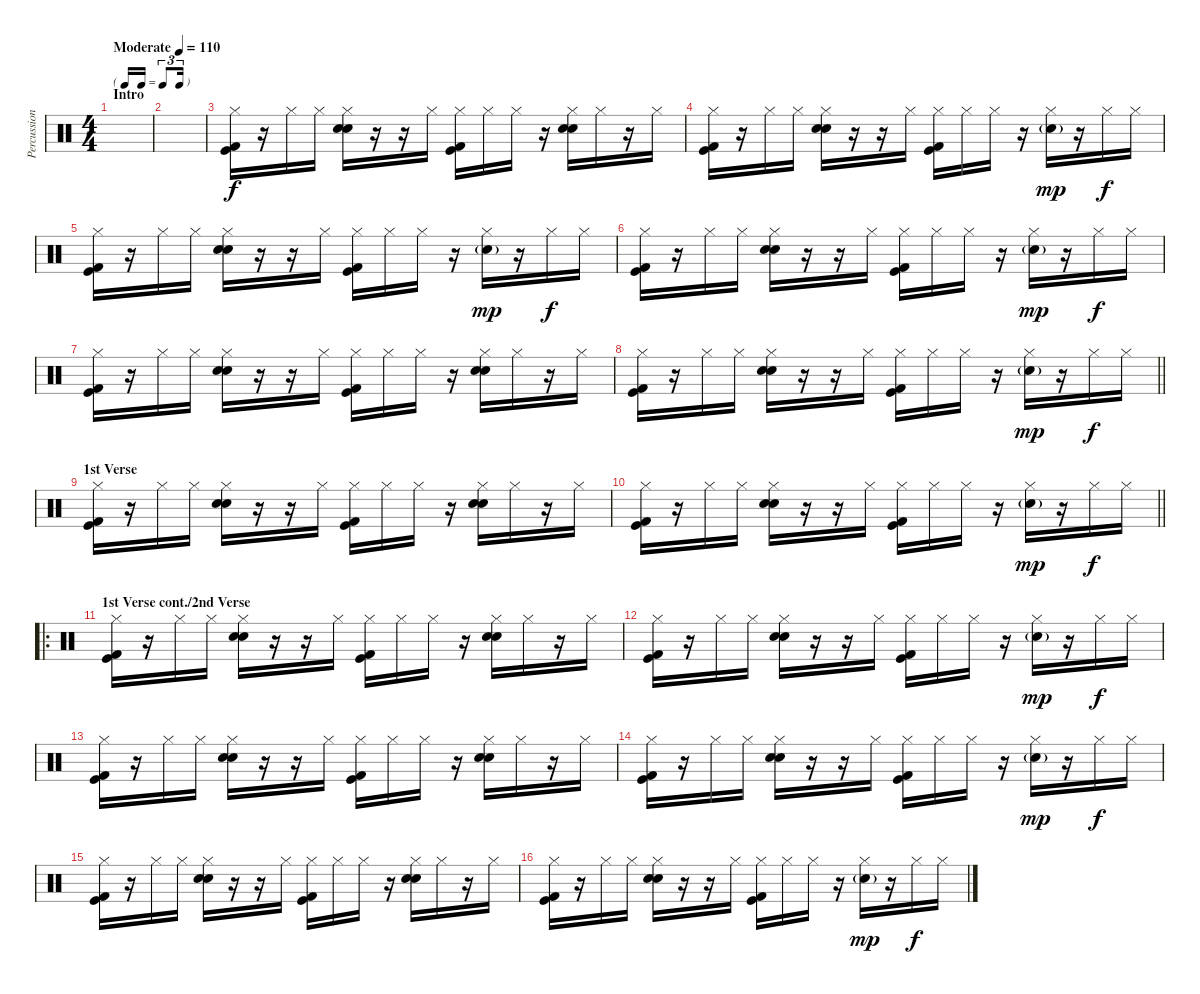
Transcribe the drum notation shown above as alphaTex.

\track ("Percussion" "Percussion") {instrument percussion}
\staff {score}
\articulation defaults
\ts (4 4)
\tf triplet16th
\section ("" "Intro")
\tempo (110 "Moderate")
\clef neutral
\ks c
|
|
("Kick (hit) 2" "Kick (hit)" "Hi-Hat (closed)").16 r.16 "Hi-Hat (closed)".16 "Hi-Hat (closed)".16 ("Electric Snare (hit)" "Snare (hit) 2" "Hi-Hat (closed)").16 r.16 r.16 "Hi-Hat (closed)".16 ("Kick (hit) 2" "Kick (hit)" "Hi-Hat (closed)").16 "Hi-Hat (closed)".16 "Hi-Hat (closed)".16 r.16 ("Electric Snare (hit)" "Snare (hit) 2" "Hi-Hat (closed)").16 "Hi-Hat (closed)".16 r.16 "Hi-Hat (closed)".16 |
("Kick (hit) 2" "Kick (hit)" "Hi-Hat (closed)").16 r.16 "Hi-Hat (closed)".16 "Hi-Hat (closed)".16 ("Electric Snare (hit)" "Snare (hit) 2" "Hi-Hat (closed)").16 r.16 r.16 "Hi-Hat (closed)".16 ("Kick (hit) 2" "Kick (hit)" "Hi-Hat (closed)").16 "Hi-Hat (closed)".16 "Hi-Hat (closed)".16 r.16 ("Hi-Hat (closed)" "Snare (hit) 2"{g}).16{dy mp} r.16 "Hi-Hat (closed)".16{dy f} "Hi-Hat (closed)".16 |
("Kick (hit) 2" "Kick (hit)" "Hi-Hat (closed)").16 r.16 "Hi-Hat (closed)".16 "Hi-Hat (closed)".16 ("Electric Snare (hit)" "Snare (hit) 2" "Hi-Hat (closed)").16 r.16 r.16 "Hi-Hat (closed)".16 ("Kick (hit) 2" "Kick (hit)" "Hi-Hat (closed)").16 "Hi-Hat (closed)".16 "Hi-Hat (closed)".16 r.16 ("Hi-Hat (closed)" "Snare (hit) 2"{g}).16{dy mp} r.16 "Hi-Hat (closed)".16{dy f} "Hi-Hat (closed)".16 |
("Kick (hit) 2" "Kick (hit)" "Hi-Hat (closed)").16 r.16 "Hi-Hat (closed)".16 "Hi-Hat (closed)".16 ("Electric Snare (hit)" "Snare (hit) 2" "Hi-Hat (closed)").16 r.16 r.16 "Hi-Hat (closed)".16 ("Kick (hit) 2" "Kick (hit)" "Hi-Hat (closed)").16 "Hi-Hat (closed)".16 "Hi-Hat (closed)".16 r.16 ("Hi-Hat (closed)" "Snare (hit) 2"{g}).16{dy mp} r.16 "Hi-Hat (closed)".16{dy f} "Hi-Hat (closed)".16 |
("Kick (hit) 2" "Kick (hit)" "Hi-Hat (closed)").16 r.16 "Hi-Hat (closed)".16 "Hi-Hat (closed)".16 ("Electric Snare (hit)" "Snare (hit) 2" "Hi-Hat (closed)").16 r.16 r.16 "Hi-Hat (closed)".16 ("Kick (hit) 2" "Kick (hit)" "Hi-Hat (closed)").16 "Hi-Hat (closed)".16 "Hi-Hat (closed)".16 r.16 ("Electric Snare (hit)" "Snare (hit) 2" "Hi-Hat (closed)").16 "Hi-Hat (closed)".16 r.16 "Hi-Hat (closed)".16 |
\barLineRight lightlight
("Kick (hit) 2" "Kick (hit)" "Hi-Hat (closed)").16 r.16 "Hi-Hat (closed)".16 "Hi-Hat (closed)".16 ("Electric Snare (hit)" "Snare (hit) 2" "Hi-Hat (closed)").16 r.16 r.16 "Hi-Hat (closed)".16 ("Kick (hit) 2" "Kick (hit)" "Hi-Hat (closed)").16 "Hi-Hat (closed)".16 "Hi-Hat (closed)".16 r.16 ("Hi-Hat (closed)" "Snare (hit) 2"{g}).16{dy mp} r.16 "Hi-Hat (closed)".16{dy f} "Hi-Hat (closed)".16 |
\section ("" "1st Verse")
("Kick (hit) 2" "Kick (hit)" "Hi-Hat (closed)").16 r.16 "Hi-Hat (closed)".16 "Hi-Hat (closed)".16 ("Electric Snare (hit)" "Snare (hit) 2" "Hi-Hat (closed)").16 r.16 r.16 "Hi-Hat (closed)".16 ("Kick (hit) 2" "Kick (hit)" "Hi-Hat (closed)").16 "Hi-Hat (closed)".16 "Hi-Hat (closed)".16 r.16 ("Electric Snare (hit)" "Snare (hit) 2" "Hi-Hat (closed)").16 "Hi-Hat (closed)".16 r.16 "Hi-Hat (closed)".16 |
\barLineRight lightlight
("Kick (hit) 2" "Kick (hit)" "Hi-Hat (closed)").16 r.16 "Hi-Hat (closed)".16 "Hi-Hat (closed)".16 ("Electric Snare (hit)" "Snare (hit) 2" "Hi-Hat (closed)").16 r.16 r.16 "Hi-Hat (closed)".16 ("Kick (hit) 2" "Kick (hit)" "Hi-Hat (closed)").16 "Hi-Hat (closed)".16 "Hi-Hat (closed)".16 r.16 ("Hi-Hat (closed)" "Snare (hit) 2"{g}).16{dy mp} r.16 "Hi-Hat (closed)".16{dy f} "Hi-Hat (closed)".16 |
\ro
\section ("" "1st Verse cont./2nd Verse")
("Kick (hit) 2" "Kick (hit)" "Hi-Hat (closed)").16 r.16 "Hi-Hat (closed)".16 "Hi-Hat (closed)".16 ("Electric Snare (hit)" "Snare (hit) 2" "Hi-Hat (closed)").16 r.16 r.16 "Hi-Hat (closed)".16 ("Kick (hit) 2" "Kick (hit)" "Hi-Hat (closed)").16 "Hi-Hat (closed)".16 "Hi-Hat (closed)".16 r.16 ("Electric Snare (hit)" "Snare (hit) 2" "Hi-Hat (closed)").16 "Hi-Hat (closed)".16 r.16 "Hi-Hat (closed)".16 |
("Kick (hit) 2" "Kick (hit)" "Hi-Hat (closed)").16 r.16 "Hi-Hat (closed)".16 "Hi-Hat (closed)".16 ("Electric Snare (hit)" "Snare (hit) 2" "Hi-Hat (closed)").16 r.16 r.16 "Hi-Hat (closed)".16 ("Kick (hit) 2" "Kick (hit)" "Hi-Hat (closed)").16 "Hi-Hat (closed)".16 "Hi-Hat (closed)".16 r.16 ("Hi-Hat (closed)" "Snare (hit) 2"{g}).16{dy mp} r.16 "Hi-Hat (closed)".16{dy f} "Hi-Hat (closed)".16 |
("Kick (hit) 2" "Kick (hit)" "Hi-Hat (closed)").16 r.16 "Hi-Hat (closed)".16 "Hi-Hat (closed)".16 ("Electric Snare (hit)" "Snare (hit) 2" "Hi-Hat (closed)").16 r.16 r.16 "Hi-Hat (closed)".16 ("Kick (hit) 2" "Kick (hit)" "Hi-Hat (closed)").16 "Hi-Hat (closed)".16 "Hi-Hat (closed)".16 r.16 ("Electric Snare (hit)" "Snare (hit) 2" "Hi-Hat (closed)").16 "Hi-Hat (closed)".16 r.16 "Hi-Hat (closed)".16 |
("Kick (hit) 2" "Kick (hit)" "Hi-Hat (closed)").16 r.16 "Hi-Hat (closed)".16 "Hi-Hat (closed)".16 ("Electric Snare (hit)" "Snare (hit) 2" "Hi-Hat (closed)").16 r.16 r.16 "Hi-Hat (closed)".16 ("Kick (hit) 2" "Kick (hit)" "Hi-Hat (closed)").16 "Hi-Hat (closed)".16 "Hi-Hat (closed)".16 r.16 ("Hi-Hat (closed)" "Snare (hit) 2"{g}).16{dy mp} r.16 "Hi-Hat (closed)".16{dy f} "Hi-Hat (closed)".16 |
("Kick (hit) 2" "Kick (hit)" "Hi-Hat (closed)").16 r.16 "Hi-Hat (closed)".16 "Hi-Hat (closed)".16 ("Electric Snare (hit)" "Snare (hit) 2" "Hi-Hat (closed)").16 r.16 r.16 "Hi-Hat (closed)".16 ("Kick (hit) 2" "Kick (hit)" "Hi-Hat (closed)").16 "Hi-Hat (closed)".16 "Hi-Hat (closed)".16 r.16 ("Electric Snare (hit)" "Snare (hit) 2" "Hi-Hat (closed)").16 "Hi-Hat (closed)".16 r.16 "Hi-Hat (closed)".16 |
("Kick (hit) 2" "Kick (hit)" "Hi-Hat (closed)").16 r.16 "Hi-Hat (closed)".16 "Hi-Hat (closed)".16 ("Electric Snare (hit)" "Snare (hit) 2" "Hi-Hat (closed)").16 r.16 r.16 "Hi-Hat (closed)".16 ("Kick (hit) 2" "Kick (hit)" "Hi-Hat (closed)").16 "Hi-Hat (closed)".16 "Hi-Hat (closed)".16 r.16 ("Hi-Hat (closed)" "Snare (hit) 2"{g}).16{dy mp} r.16 "Hi-Hat (closed)".16{dy f} "Hi-Hat (closed)".16
